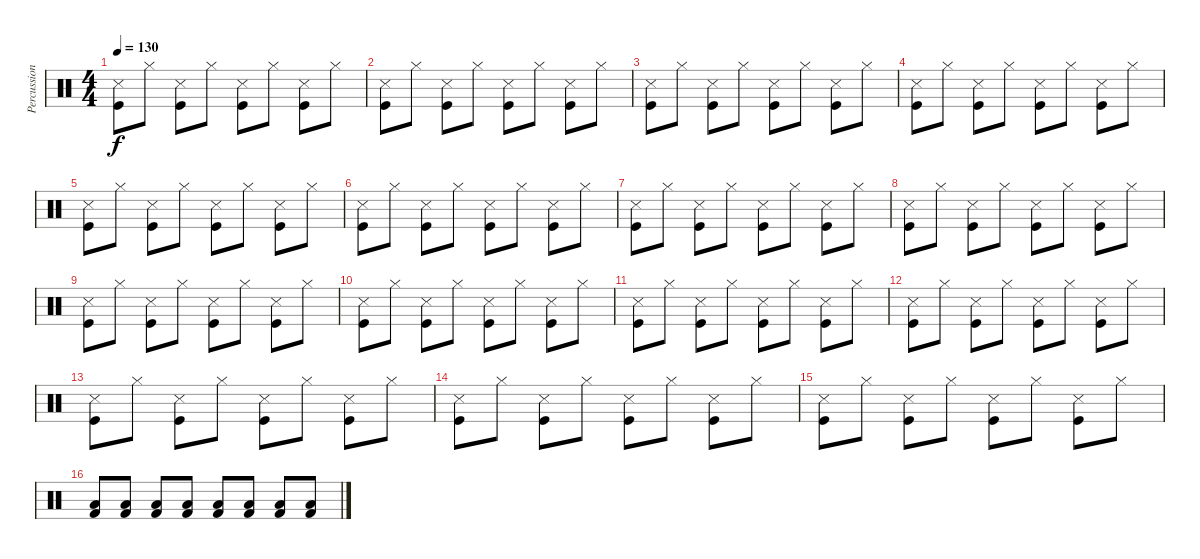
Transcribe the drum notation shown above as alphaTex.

\track ("Percussions" "Percussion") {instrument percussion}
\staff {score}
\articulation defaults
\ts (4 4)
\tempo 130
\clef neutral
\ks c
("Snare (side stick) 3" "Kick (hit)").8{dy f} "Hi-Hat (closed)".8 ("Snare (side stick) 3" "Kick (hit)").8 "Hi-Hat (closed)".8 ("Snare (side stick) 3" "Kick (hit)").8 "Hi-Hat (closed)".8 ("Snare (side stick) 3" "Kick (hit)").8 "Hi-Hat (closed)".8 |
("Snare (side stick) 3" "Kick (hit)").8 "Hi-Hat (closed)".8 ("Snare (side stick) 3" "Kick (hit)").8 "Hi-Hat (closed)".8 ("Snare (side stick) 3" "Kick (hit)").8 "Hi-Hat (closed)".8 ("Snare (side stick) 3" "Kick (hit)").8 "Hi-Hat (closed)".8 |
("Snare (side stick) 3" "Kick (hit)").8 "Hi-Hat (closed)".8 ("Snare (side stick) 3" "Kick (hit)").8 "Hi-Hat (closed)".8 ("Snare (side stick) 3" "Kick (hit)").8 "Hi-Hat (closed)".8 ("Snare (side stick) 3" "Kick (hit)").8 "Hi-Hat (closed)".8 |
("Snare (side stick) 3" "Kick (hit)").8 "Hi-Hat (closed)".8 ("Snare (side stick) 3" "Kick (hit)").8 "Hi-Hat (closed)".8 ("Snare (side stick) 3" "Kick (hit)").8 "Hi-Hat (closed)".8 ("Snare (side stick) 3" "Kick (hit)").8 "Hi-Hat (closed)".8 |
("Snare (side stick) 3" "Kick (hit)").8 "Hi-Hat (closed)".8 ("Snare (side stick) 3" "Kick (hit)").8 "Hi-Hat (closed)".8 ("Snare (side stick) 3" "Kick (hit)").8 "Hi-Hat (closed)".8 ("Snare (side stick) 3" "Kick (hit)").8 "Hi-Hat (closed)".8 |
("Snare (side stick) 3" "Kick (hit)").8 "Hi-Hat (closed)".8 ("Snare (side stick) 3" "Kick (hit)").8 "Hi-Hat (closed)".8 ("Snare (side stick) 3" "Kick (hit)").8 "Hi-Hat (closed)".8 ("Snare (side stick) 3" "Kick (hit)").8 "Hi-Hat (closed)".8 |
("Snare (side stick) 3" "Kick (hit)").8 "Hi-Hat (closed)".8 ("Snare (side stick) 3" "Kick (hit)").8 "Hi-Hat (closed)".8 ("Snare (side stick) 3" "Kick (hit)").8 "Hi-Hat (closed)".8 ("Snare (side stick) 3" "Kick (hit)").8 "Hi-Hat (closed)".8 |
("Snare (side stick) 3" "Kick (hit)").8 "Hi-Hat (closed)".8 ("Snare (side stick) 3" "Kick (hit)").8 "Hi-Hat (closed)".8 ("Snare (side stick) 3" "Kick (hit)").8 "Hi-Hat (closed)".8 ("Snare (side stick) 3" "Kick (hit)").8 "Hi-Hat (closed)".8 |
("Snare (side stick) 3" "Kick (hit)").8 "Hi-Hat (closed)".8 ("Snare (side stick) 3" "Kick (hit)").8 "Hi-Hat (closed)".8 ("Snare (side stick) 3" "Kick (hit)").8 "Hi-Hat (closed)".8 ("Snare (side stick) 3" "Kick (hit)").8 "Hi-Hat (closed)".8 |
("Snare (side stick) 3" "Kick (hit)").8 "Hi-Hat (closed)".8 ("Snare (side stick) 3" "Kick (hit)").8 "Hi-Hat (closed)".8 ("Snare (side stick) 3" "Kick (hit)").8 "Hi-Hat (closed)".8 ("Snare (side stick) 3" "Kick (hit)").8 "Hi-Hat (closed)".8 |
("Snare (side stick) 3" "Kick (hit)").8 "Hi-Hat (closed)".8 ("Snare (side stick) 3" "Kick (hit)").8 "Hi-Hat (closed)".8 ("Snare (side stick) 3" "Kick (hit)").8 "Hi-Hat (closed)".8 ("Snare (side stick) 3" "Kick (hit)").8 "Hi-Hat (closed)".8 |
("Snare (side stick) 3" "Kick (hit)").8 "Hi-Hat (closed)".8 ("Snare (side stick) 3" "Kick (hit)").8 "Hi-Hat (closed)".8 ("Snare (side stick) 3" "Kick (hit)").8 "Hi-Hat (closed)".8 ("Snare (side stick) 3" "Kick (hit)").8 "Hi-Hat (closed)".8 |
("Snare (side stick) 3" "Kick (hit)").8 "Hi-Hat (closed)".8 ("Snare (side stick) 3" "Kick (hit)").8 "Hi-Hat (closed)".8 ("Snare (side stick) 3" "Kick (hit)").8 "Hi-Hat (closed)".8 ("Snare (side stick) 3" "Kick (hit)").8 "Hi-Hat (closed)".8 |
("Snare (side stick) 3" "Kick (hit)").8 "Hi-Hat (closed)".8 ("Snare (side stick) 3" "Kick (hit)").8 "Hi-Hat (closed)".8 ("Snare (side stick) 3" "Kick (hit)").8 "Hi-Hat (closed)".8 ("Snare (side stick) 3" "Kick (hit)").8 "Hi-Hat (closed)".8 |
("Snare (side stick) 3" "Kick (hit)").8 "Hi-Hat (closed)".8 ("Snare (side stick) 3" "Kick (hit)").8 "Hi-Hat (closed)".8 ("Snare (side stick) 3" "Kick (hit)").8 "Hi-Hat (closed)".8 ("Snare (side stick) 3" "Kick (hit)").8 "Hi-Hat (closed)".8 |
("Low Tom (hit)" "Kick (hit) 2").8{volume 16} ("Low Tom (hit)" "Kick (hit) 2").8 ("Low Tom (hit)" "Kick (hit) 2").8 ("Low Tom (hit)" "Kick (hit) 2").8 ("Low Tom (hit)" "Kick (hit) 2").8 ("Low Tom (hit)" "Kick (hit) 2").8 ("Low Tom (hit)" "Kick (hit) 2").8 ("Low Tom (hit)" "Kick (hit) 2").8
